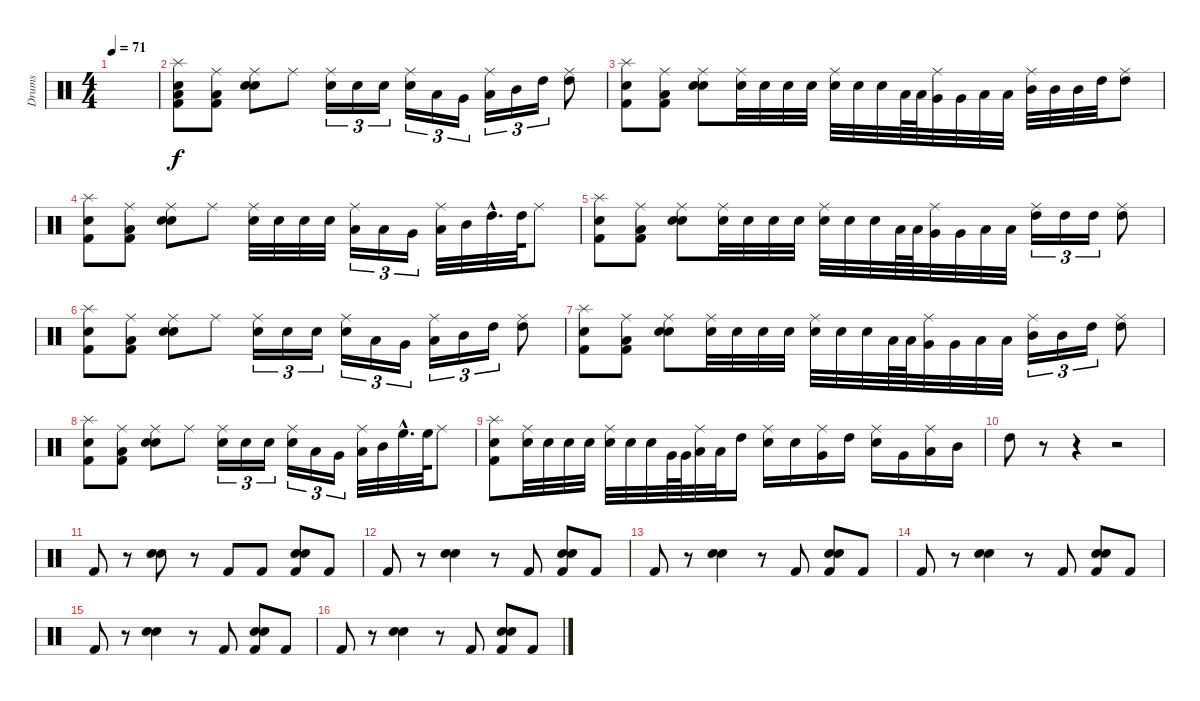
\track ("Drums" "Drums") {instrument percussion}
\staff {score}
\articulation defaults
\ts (4 4)
\tempo 71
\clef neutral
\ks c
|
("Splash (hit)" "Snare (hit) 2" "Low Floor Tom (hit)" "Kick (hit) 2").8 ("Ride (middle)" "Low Floor Tom (hit)" "Kick (hit) 2").8 ("Ride (middle)" "Snare (hit) 2" "Electric Snare (hit)").8 "Ride (middle)".8 ("Ride (middle)" "Snare (hit) 2").16{tu (3 2)} "Snare (hit) 2".16{tu (3 2)} "Snare (hit) 2".16{tu (3 2)} ("Ride (middle)" "Snare (hit) 2").16{tu (3 2)} "Low Floor Tom (hit)".16{tu (3 2)} "Very Low Tom (hit)".16{tu (3 2)} ("Ride (middle)" "Low Tom (hit)").16{tu (3 2)} "Mid Tom (hit)".16{tu (3 2)} "High Tom (hit)".16{tu (3 2)} ("Ride (middle)" "High Tom (hit)").8 |
("Splash (hit)" "Snare (hit) 2" "Kick (hit) 2").8 ("Ride (middle)" "Low Floor Tom (hit)" "Kick (hit) 2").8 ("Ride (middle)" "Snare (hit) 2" "Electric Snare (hit)").8 ("Ride (middle)" "Snare (hit) 2").32 "Snare (hit) 2".32 "Snare (hit) 2".32 "Snare (hit) 2".32 ("Ride (middle)" "Electric Snare (hit)").32 "Electric Snare (hit)".32 "Electric Snare (hit)".32 "Low Floor Tom (hit)".64 "Low Floor Tom (hit)".64 ("Ride (middle)" "Very Low Tom (hit)").32 "Very Low Tom (hit)".32 "Low Tom (hit)".32 "Low Tom (hit)".32 ("Ride (middle)" "Mid Tom (hit)").32 "Mid Tom (hit)".32 "Mid Tom (hit)".32 "High Tom (hit)".32 ("Ride (middle)" "High Tom (hit)").8 |
("Splash (hit)" "Snare (hit) 2" "Kick (hit) 2").8 ("Ride (middle)" "Low Floor Tom (hit)" "Kick (hit) 2").8 ("Ride (middle)" "Snare (hit) 2" "Electric Snare (hit)").8 "Ride (middle)".8 ("Ride (middle)" "Snare (hit) 2").32 "Snare (hit) 2".32 "Snare (hit) 2".32 "Snare (hit) 2".32 ("Ride (middle)" "Low Floor Tom (hit)").16{tu (3 2)} "Low Floor Tom (hit)".16{tu (3 2)} "Very Low Tom (hit)".16{tu (3 2)} ("Ride (middle)" "Low Tom (hit)").32 "Mid Tom (hit)".32 "High Tom (hit)"{hac}.32{d} "High Tom (hit)".64 "Ride (middle)".8 |
("Splash (hit)" "Snare (hit) 2" "Kick (hit) 2").8 ("Ride (middle)" "Low Floor Tom (hit)" "Kick (hit) 2").8 ("Ride (middle)" "Snare (hit) 2" "Electric Snare (hit)").8 ("Ride (middle)" "Snare (hit) 2").32 "Snare (hit) 2".32 "Snare (hit) 2".32 "Snare (hit) 2".32 ("Ride (middle)" "Electric Snare (hit)").32 "Electric Snare (hit)".32 "Electric Snare (hit)".32 "Low Floor Tom (hit)".64 "Low Floor Tom (hit)".64 ("Ride (middle)" "Very Low Tom (hit)").32 "Very Low Tom (hit)".32 "Low Tom (hit)".32 "Low Tom (hit)".32 ("Ride (middle)" "High Tom (hit)").16{tu (3 2)} "High Tom (hit)".16{tu (3 2)} "High Tom (hit)".16{tu (3 2)} ("Ride (middle)" "High Tom (hit)").8 |
("Splash (hit)" "Snare (hit) 2" "Kick (hit) 2").8 ("Ride (middle)" "Low Floor Tom (hit)" "Kick (hit) 2").8 ("Ride (middle)" "Snare (hit) 2" "Electric Snare (hit)").8 "Ride (middle)".8 ("Ride (middle)" "Snare (hit) 2").16{tu (3 2)} "Snare (hit) 2".16{tu (3 2)} "Snare (hit) 2".16{tu (3 2)} ("Ride (middle)" "Snare (hit) 2").16{tu (3 2)} "Low Floor Tom (hit)".16{tu (3 2)} "Very Low Tom (hit)".16{tu (3 2)} ("Ride (middle)" "Low Tom (hit)").16{tu (3 2)} "Mid Tom (hit)".16{tu (3 2)} "High Tom (hit)".16{tu (3 2)} ("Ride (middle)" "High Tom (hit)").8 |
("Splash (hit)" "Snare (hit) 2" "Kick (hit) 2").8 ("Ride (middle)" "Low Floor Tom (hit)" "Kick (hit) 2").8 ("Ride (middle)" "Snare (hit) 2" "Electric Snare (hit)").8 ("Ride (middle)" "Snare (hit) 2").32 "Snare (hit) 2".32 "Snare (hit) 2".32 "Snare (hit) 2".32 ("Ride (middle)" "Electric Snare (hit)").32 "Electric Snare (hit)".32 "Electric Snare (hit)".32 "Low Floor Tom (hit)".64 "Low Floor Tom (hit)".64 ("Ride (middle)" "Very Low Tom (hit)").32 "Very Low Tom (hit)".32 "Low Tom (hit)".32 "Low Tom (hit)".32 ("Ride (middle)" "Mid Tom (hit)").16{tu (3 2)} "Mid Tom (hit)".16{tu (3 2)} "High Tom (hit)".16{tu (3 2)} ("Ride (middle)" "High Tom (hit)").8 |
("Splash (hit)" "Snare (hit) 2" "Kick (hit) 2").8 ("Ride (middle)" "Low Floor Tom (hit)" "Kick (hit) 2").8 ("Ride (middle)" "Snare (hit) 2" "Electric Snare (hit)").8 "Ride (middle)".8 ("Ride (middle)" "Electric Snare (hit)").16{tu (3 2)} "Electric Snare (hit)".16{tu (3 2)} "Electric Snare (hit)".16{tu (3 2)} ("Ride (middle)" "Electric Snare (hit)").16{tu (3 2)} "Low Floor Tom (hit)".16{tu (3 2)} "Very Low Tom (hit)".16{tu (3 2)} ("Ride (middle)" "Low Tom (hit)").32 "Mid Tom (hit)".32 "High Floor Tom (hit)"{hac}.32{d} "High Floor Tom (hit)".64 "Ride (middle)".8 |
("Splash (hit)" "Snare (hit) 2" "Kick (hit) 2").8 ("Ride (middle)" "Snare (hit) 2").32 "Snare (hit) 2".32 "Snare (hit) 2".32 "Snare (hit) 2".32 ("Ride (middle)" "Electric Snare (hit)").32 "Electric Snare (hit)".32 "Electric Snare (hit)".32 "Very Low Tom (hit)".64 "Very Low Tom (hit)".64 ("Ride (middle)" "Low Tom (hit)").32 "Low Tom (hit)".32 "High Tom (hit)".16 ("Ride (middle)" "Electric Snare (hit)").16 "Electric Snare (hit)".16 ("Ride (middle)" "Very Low Tom (hit)").16 "High Tom (hit)".16 ("Ride (middle)" "Electric Snare (hit)").16 "Very Low Tom (hit)".16 ("Ride (middle)" "Low Tom (hit)").16 "Mid Tom (hit)".16 |
"High Tom (hit)".8 r.8 r.4 r.2 |
"Kick (hit) 2".8 r.8 ("Snare (hit) 2" "Electric Snare (hit)").8 r.8 "Kick (hit) 2".8 "Kick (hit) 2".8 ("Snare (hit) 2" "Electric Snare (hit)" "Kick (hit) 2").8 "Kick (hit) 2".8 |
"Kick (hit) 2".8 r.8 ("Snare (hit) 2" "Electric Snare (hit)").4 r.8 "Kick (hit) 2".8 ("Snare (hit) 2" "Electric Snare (hit)" "Kick (hit) 2").8 "Kick (hit) 2".8 |
"Kick (hit) 2".8 r.8 ("Snare (hit) 2" "Electric Snare (hit)").4 r.8 "Kick (hit) 2".8 ("Snare (hit) 2" "Electric Snare (hit)" "Kick (hit) 2").8 "Kick (hit) 2".8 |
"Kick (hit) 2".8 r.8 ("Snare (hit) 2" "Electric Snare (hit)").4 r.8 "Kick (hit) 2".8 ("Snare (hit) 2" "Electric Snare (hit)" "Kick (hit) 2").8 "Kick (hit) 2".8 |
"Kick (hit) 2".8 r.8 ("Snare (hit) 2" "Electric Snare (hit)").4 r.8 "Kick (hit) 2".8 ("Snare (hit) 2" "Electric Snare (hit)" "Kick (hit) 2").8 "Kick (hit) 2".8 |
"Kick (hit) 2".8 r.8 ("Snare (hit) 2" "Electric Snare (hit)").4 r.8 "Kick (hit) 2".8 ("Snare (hit) 2" "Electric Snare (hit)" "Kick (hit) 2").8 "Kick (hit) 2".8
